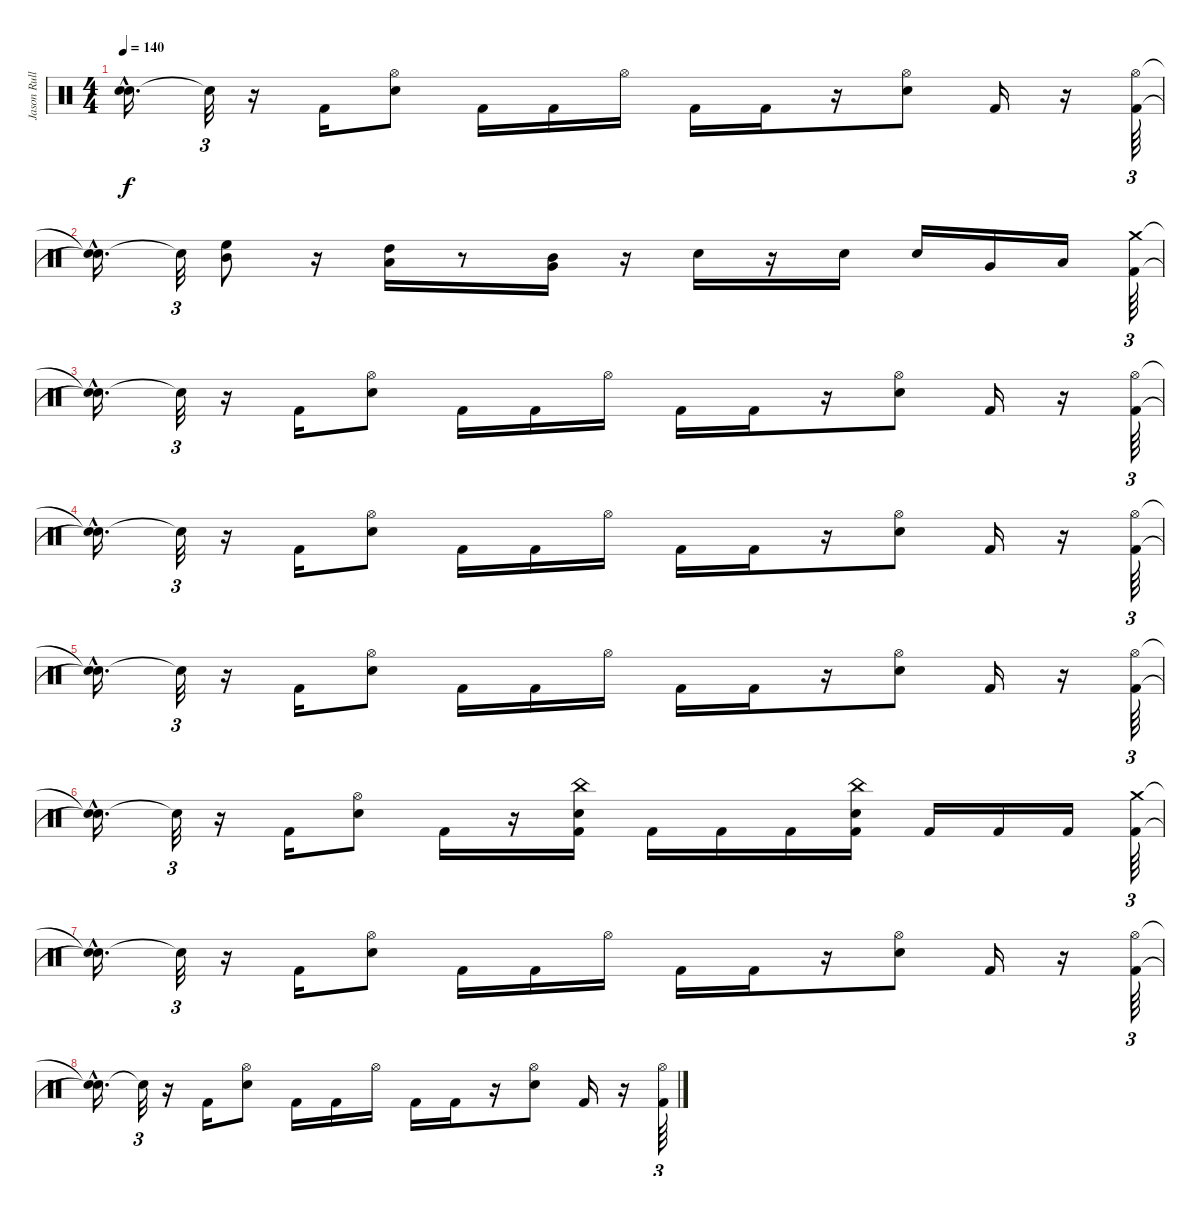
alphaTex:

\track ("Jason Rullo" "Jason Rull") {instrument percussion}
\staff {score}
\articulation defaults
\ts (4 4)
\tempo 140
\clef neutral
\ks c
("Snare (hit)"{hac t} "Snare (hit)"{hac t}).16{d dy f} "Snare (hit)"{t}.32{tu (3 2)} r.16 "Kick (hit) 2".16 ("Hi-Hat (open)" "Electric Snare (hit)").8 "Kick (hit) 2".16 "Kick (hit) 2".16 "Hi-Hat (open)".16 "Kick (hit) 2".16 "Kick (hit) 2".16 r.16 ("Hi-Hat (open)" "Electric Snare (hit)").8 "Kick (hit) 2".16 r.16 ("Hi-Hat (open)" "Kick (hit) 2").64{tu (3 2)} |
("Snare (hit)"{hac t} "Snare (hit)"{hac t}).16{d} "Snare (hit)"{t}.32{tu (3 2)} ("High Floor Tom (hit)" "Mid Tom (hit)").8 r.16 ("High Tom (hit)" "Low Tom (hit)").16 r.8 ("Mid Tom (hit)" "Very Low Tom (hit)").16 r.16 "Electric Snare (hit)".16 r.16 "Electric Snare (hit)".16 "Electric Snare (hit)".16 "Very Low Tom (hit)".16 "Low Floor Tom (hit)".16 ("Crash medium (hit)" "Kick (hit) 2").64{tu (3 2)} |
("Snare (hit)"{hac t} "Snare (hit)"{hac t}).16{d} "Snare (hit)"{t}.32{tu (3 2)} r.16 "Kick (hit) 2".16 ("Hi-Hat (open)" "Electric Snare (hit)").8 "Kick (hit) 2".16 "Kick (hit) 2".16 "Hi-Hat (open)".16 "Kick (hit) 2".16 "Kick (hit) 2".16 r.16 ("Hi-Hat (open)" "Electric Snare (hit)").8 "Kick (hit) 2".16 r.16 ("Hi-Hat (open)" "Kick (hit) 2").64{tu (3 2)} |
("Snare (hit)"{hac t} "Snare (hit)"{hac t}).16{d} "Snare (hit)"{t}.32{tu (3 2)} r.16 "Kick (hit) 2".16 ("Hi-Hat (open)" "Electric Snare (hit)").8 "Kick (hit) 2".16 "Kick (hit) 2".16 "Hi-Hat (open)".16 "Kick (hit) 2".16 "Kick (hit) 2".16 r.16 ("Hi-Hat (open)" "Electric Snare (hit)").8 "Kick (hit) 2".16 r.16 ("Hi-Hat (open)" "Kick (hit) 2").64{tu (3 2)} |
("Snare (hit)"{hac t} "Snare (hit)"{hac t}).16{d} "Snare (hit)"{t}.32{tu (3 2)} r.16 "Kick (hit) 2".16 ("Hi-Hat (open)" "Electric Snare (hit)").8 "Kick (hit) 2".16 "Kick (hit) 2".16 "Hi-Hat (open)".16 "Kick (hit) 2".16 "Kick (hit) 2".16 r.16 ("Hi-Hat (open)" "Electric Snare (hit)").8 "Kick (hit) 2".16 r.16 ("Hi-Hat (open)" "Kick (hit) 2").64{tu (3 2)} |
("Snare (hit)"{hac t} "Snare (hit)"{hac t}).16{d} "Snare (hit)"{t}.32{tu (3 2)} r.16 "Kick (hit) 2".16 ("Hi-Hat (open)" "Electric Snare (hit)").8 "Kick (hit) 2".16 r.16 ("China (hit)" "Electric Snare (hit)" "Kick (hit) 2").16 "Kick (hit) 2".16 "Kick (hit) 2".16 "Kick (hit) 2".16 ("China (hit)" "Kick (hit) 2" "Electric Snare (hit)").16 "Kick (hit) 2".16 "Kick (hit) 2".16 "Kick (hit) 2".16 ("Crash medium (hit)" "Kick (hit) 2").64{tu (3 2)} |
("Snare (hit)"{hac t} "Snare (hit)"{hac t}).16{d} "Snare (hit)"{t}.32{tu (3 2)} r.16 "Kick (hit) 2".16 ("Hi-Hat (open)" "Electric Snare (hit)").8 "Kick (hit) 2".16 "Kick (hit) 2".16 "Hi-Hat (open)".16 "Kick (hit) 2".16 "Kick (hit) 2".16 r.16 ("Hi-Hat (open)" "Electric Snare (hit)").8 "Kick (hit) 2".16 r.16 ("Hi-Hat (open)" "Kick (hit) 2").64{tu (3 2)} |
("Snare (hit)"{hac t} "Snare (hit)"{hac t}).16{d} "Snare (hit)"{t}.32{tu (3 2)} r.16 "Kick (hit) 2".16 ("Hi-Hat (open)" "Electric Snare (hit)").8 "Kick (hit) 2".16 "Kick (hit) 2".16 "Hi-Hat (open)".16 "Kick (hit) 2".16 "Kick (hit) 2".16 r.16 ("Hi-Hat (open)" "Electric Snare (hit)").8 "Kick (hit) 2".16 r.16 ("Hi-Hat (open)" "Kick (hit) 2").64{tu (3 2)}
